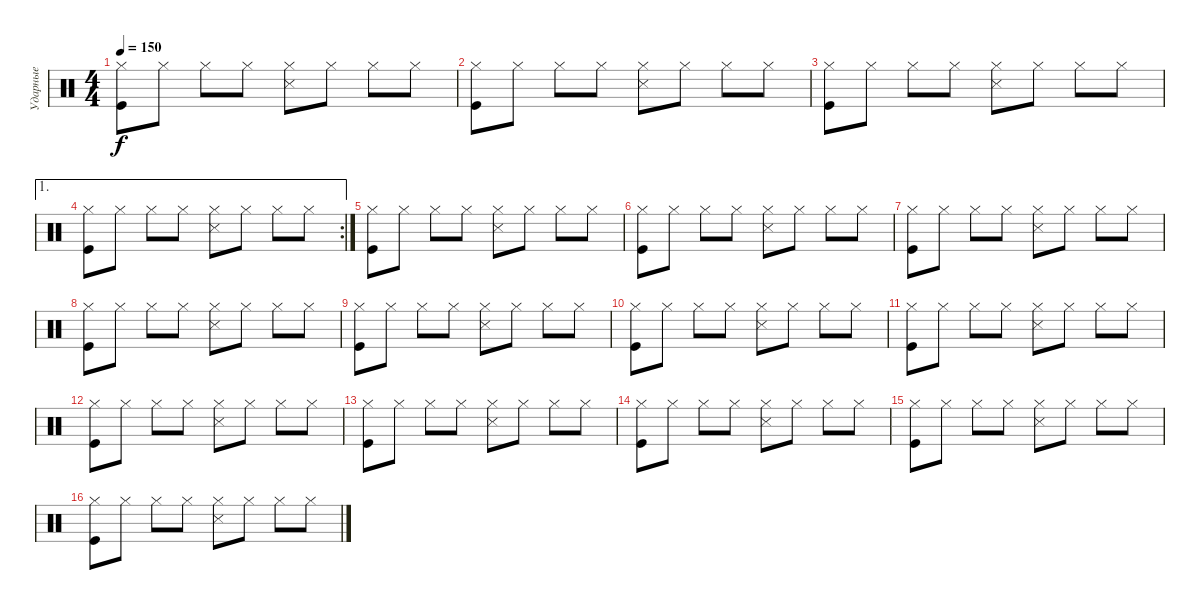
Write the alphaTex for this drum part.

\track ("Ударные" "Ударные") {instrument percussion}
\staff {score}
\articulation defaults
\ts (4 4)
\tempo 150
\clef neutral
\ks c
("Hi-Hat (closed)" "Kick (hit)").8{dy f} "Hi-Hat (closed)".8 "Hi-Hat (closed)".8 "Hi-Hat (closed)".8 ("Hi-Hat (closed)" "Metronome (hit)").8 "Hi-Hat (closed)".8 "Hi-Hat (closed)".8 "Hi-Hat (closed)".8 |
("Hi-Hat (closed)" "Kick (hit)").8 "Hi-Hat (closed)".8 "Hi-Hat (closed)".8 "Hi-Hat (closed)".8 ("Hi-Hat (closed)" "Metronome (hit)").8 "Hi-Hat (closed)".8 "Hi-Hat (closed)".8 "Hi-Hat (closed)".8 |
("Hi-Hat (closed)" "Kick (hit)").8 "Hi-Hat (closed)".8 "Hi-Hat (closed)".8 "Hi-Hat (closed)".8 ("Hi-Hat (closed)" "Metronome (hit)").8 "Hi-Hat (closed)".8 "Hi-Hat (closed)".8 "Hi-Hat (closed)".8 |
\ae 1
\rc 2
("Hi-Hat (closed)" "Kick (hit)").8 "Hi-Hat (closed)".8 "Hi-Hat (closed)".8 "Hi-Hat (closed)".8 ("Hi-Hat (closed)" "Metronome (hit)").8 "Hi-Hat (closed)".8 "Hi-Hat (closed)".8 "Hi-Hat (closed)".8 |
("Hi-Hat (closed)" "Kick (hit)").8 "Hi-Hat (closed)".8 "Hi-Hat (closed)".8 "Hi-Hat (closed)".8 ("Hi-Hat (closed)" "Metronome (hit)").8 "Hi-Hat (closed)".8 "Hi-Hat (closed)".8 "Hi-Hat (closed)".8 |
("Hi-Hat (closed)" "Kick (hit)").8 "Hi-Hat (closed)".8 "Hi-Hat (closed)".8 "Hi-Hat (closed)".8 ("Hi-Hat (closed)" "Metronome (hit)").8 "Hi-Hat (closed)".8 "Hi-Hat (closed)".8 "Hi-Hat (closed)".8 |
("Hi-Hat (closed)" "Kick (hit)").8 "Hi-Hat (closed)".8 "Hi-Hat (closed)".8 "Hi-Hat (closed)".8 ("Hi-Hat (closed)" "Metronome (hit)").8 "Hi-Hat (closed)".8 "Hi-Hat (closed)".8 "Hi-Hat (closed)".8 |
("Hi-Hat (closed)" "Kick (hit)").8 "Hi-Hat (closed)".8 "Hi-Hat (closed)".8 "Hi-Hat (closed)".8 ("Hi-Hat (closed)" "Metronome (hit)").8 "Hi-Hat (closed)".8 "Hi-Hat (closed)".8 "Hi-Hat (closed)".8 |
("Hi-Hat (closed)" "Kick (hit)").8 "Hi-Hat (closed)".8 "Hi-Hat (closed)".8 "Hi-Hat (closed)".8 ("Hi-Hat (closed)" "Metronome (hit)").8 "Hi-Hat (closed)".8 "Hi-Hat (closed)".8 "Hi-Hat (closed)".8 |
("Hi-Hat (closed)" "Kick (hit)").8 "Hi-Hat (closed)".8 "Hi-Hat (closed)".8 "Hi-Hat (closed)".8 ("Hi-Hat (closed)" "Metronome (hit)").8 "Hi-Hat (closed)".8 "Hi-Hat (closed)".8 "Hi-Hat (closed)".8 |
("Hi-Hat (closed)" "Kick (hit)").8 "Hi-Hat (closed)".8 "Hi-Hat (closed)".8 "Hi-Hat (closed)".8 ("Hi-Hat (closed)" "Metronome (hit)").8 "Hi-Hat (closed)".8 "Hi-Hat (closed)".8 "Hi-Hat (closed)".8 |
("Hi-Hat (closed)" "Kick (hit)").8 "Hi-Hat (closed)".8 "Hi-Hat (closed)".8 "Hi-Hat (closed)".8 ("Hi-Hat (closed)" "Metronome (hit)").8 "Hi-Hat (closed)".8 "Hi-Hat (closed)".8 "Hi-Hat (closed)".8 |
("Hi-Hat (closed)" "Kick (hit)").8 "Hi-Hat (closed)".8 "Hi-Hat (closed)".8 "Hi-Hat (closed)".8 ("Hi-Hat (closed)" "Metronome (hit)").8 "Hi-Hat (closed)".8 "Hi-Hat (closed)".8 "Hi-Hat (closed)".8 |
("Hi-Hat (closed)" "Kick (hit)").8 "Hi-Hat (closed)".8 "Hi-Hat (closed)".8 "Hi-Hat (closed)".8 ("Hi-Hat (closed)" "Metronome (hit)").8 "Hi-Hat (closed)".8 "Hi-Hat (closed)".8 "Hi-Hat (closed)".8 |
("Hi-Hat (closed)" "Kick (hit)").8 "Hi-Hat (closed)".8 "Hi-Hat (closed)".8 "Hi-Hat (closed)".8 ("Hi-Hat (closed)" "Metronome (hit)").8 "Hi-Hat (closed)".8 "Hi-Hat (closed)".8 "Hi-Hat (closed)".8 |
("Hi-Hat (closed)" "Kick (hit)").8 "Hi-Hat (closed)".8 "Hi-Hat (closed)".8 "Hi-Hat (closed)".8 ("Hi-Hat (closed)" "Metronome (hit)").8 "Hi-Hat (closed)".8 "Hi-Hat (closed)".8 "Hi-Hat (closed)".8
